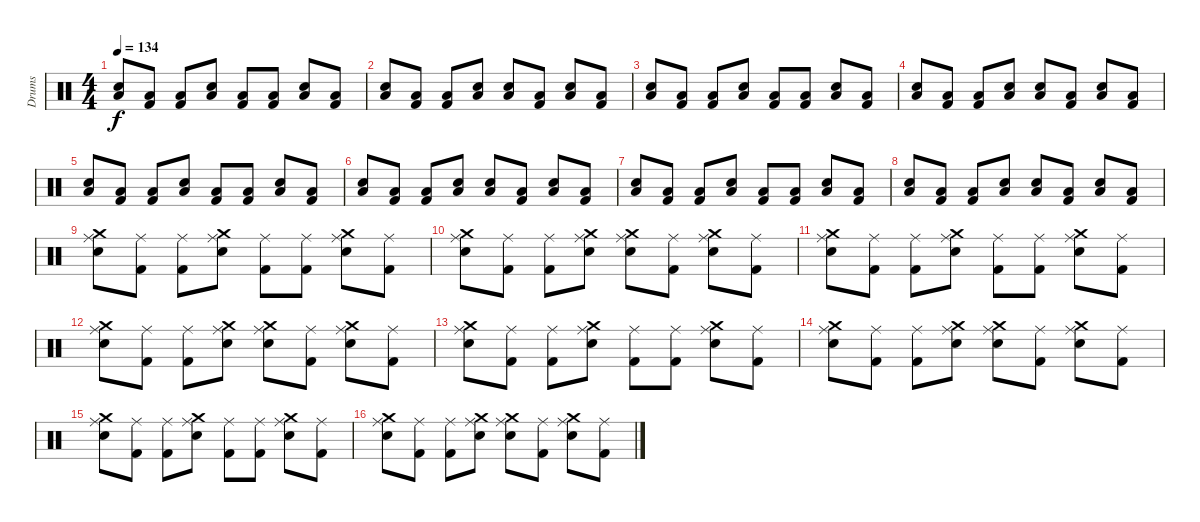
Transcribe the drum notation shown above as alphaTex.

\track ("Drums" "Drums") {instrument percussion}
\staff {score}
\articulation defaults
\ts (4 4)
\tempo 134
\clef neutral
\ks c
("Low Tom (hit)" "Snare (hit) 2").8{dy f} ("Low Tom (hit)" "Kick (hit) 2").8 ("Low Tom (hit)" "Kick (hit) 2").8 ("Low Tom (hit)" "Snare (hit) 2").8 ("Low Tom (hit)" "Kick (hit) 2").8 ("Low Tom (hit)" "Kick (hit) 2").8 ("Low Tom (hit)" "Snare (hit) 2").8 ("Low Tom (hit)" "Kick (hit) 2").8 |
("Low Tom (hit)" "Snare (hit) 2").8 ("Low Tom (hit)" "Kick (hit) 2").8 ("Low Tom (hit)" "Kick (hit) 2").8 ("Low Tom (hit)" "Snare (hit) 2").8 ("Low Tom (hit)" "Snare (hit) 2").8 ("Low Tom (hit)" "Kick (hit) 2").8 ("Low Tom (hit)" "Snare (hit) 2").8 ("Low Tom (hit)" "Kick (hit) 2").8 |
("Low Tom (hit)" "Snare (hit) 2").8 ("Low Tom (hit)" "Kick (hit) 2").8 ("Low Tom (hit)" "Kick (hit) 2").8 ("Low Tom (hit)" "Snare (hit) 2").8 ("Low Tom (hit)" "Kick (hit) 2").8 ("Low Tom (hit)" "Kick (hit) 2").8 ("Low Tom (hit)" "Snare (hit) 2").8 ("Low Tom (hit)" "Kick (hit) 2").8 |
("Low Tom (hit)" "Snare (hit) 2").8 ("Low Tom (hit)" "Kick (hit) 2").8 ("Low Tom (hit)" "Kick (hit) 2").8 ("Low Tom (hit)" "Snare (hit) 2").8 ("Low Tom (hit)" "Snare (hit) 2").8 ("Low Tom (hit)" "Kick (hit) 2").8 ("Low Tom (hit)" "Snare (hit) 2").8 ("Low Tom (hit)" "Kick (hit) 2").8 |
("Low Tom (hit)" "Snare (hit) 2").8 ("Low Tom (hit)" "Kick (hit) 2").8 ("Low Tom (hit)" "Kick (hit) 2").8 ("Low Tom (hit)" "Snare (hit) 2").8 ("Low Tom (hit)" "Kick (hit) 2").8 ("Low Tom (hit)" "Kick (hit) 2").8 ("Low Tom (hit)" "Snare (hit) 2").8 ("Low Tom (hit)" "Kick (hit) 2").8 |
("Low Tom (hit)" "Snare (hit) 2").8 ("Low Tom (hit)" "Kick (hit) 2").8 ("Low Tom (hit)" "Kick (hit) 2").8 ("Low Tom (hit)" "Snare (hit) 2").8 ("Low Tom (hit)" "Snare (hit) 2").8 ("Low Tom (hit)" "Kick (hit) 2").8 ("Low Tom (hit)" "Snare (hit) 2").8 ("Low Tom (hit)" "Kick (hit) 2").8 |
("Low Tom (hit)" "Snare (hit) 2").8 ("Low Tom (hit)" "Kick (hit) 2").8 ("Low Tom (hit)" "Kick (hit) 2").8 ("Low Tom (hit)" "Snare (hit) 2").8 ("Low Tom (hit)" "Kick (hit) 2").8 ("Low Tom (hit)" "Kick (hit) 2").8 ("Low Tom (hit)" "Snare (hit) 2").8 ("Low Tom (hit)" "Kick (hit) 2").8 |
("Low Tom (hit)" "Snare (hit) 2").8 ("Low Tom (hit)" "Kick (hit) 2").8 ("Low Tom (hit)" "Kick (hit) 2").8 ("Low Tom (hit)" "Snare (hit) 2").8 ("Low Tom (hit)" "Snare (hit) 2").8 ("Low Tom (hit)" "Kick (hit) 2").8 ("Low Tom (hit)" "Snare (hit) 2").8 ("Low Tom (hit)" "Kick (hit) 2").8 |
("Ride (middle)" "Crash medium (hit)" "Snare (hit) 2").8{volume 13} ("Ride (middle)" "Kick (hit) 2").8 ("Ride (middle)" "Kick (hit) 2").8 ("Ride (middle)" "Crash medium (hit)" "Snare (hit) 2").8 ("Ride (middle)" "Kick (hit) 2").8 ("Ride (middle)" "Kick (hit) 2").8 ("Ride (middle)" "Crash medium (hit)" "Snare (hit) 2").8 ("Ride (middle)" "Kick (hit) 2").8 |
("Ride (middle)" "Crash medium (hit)" "Snare (hit) 2").8 ("Ride (middle)" "Kick (hit) 2").8 ("Ride (middle)" "Kick (hit) 2").8 ("Ride (middle)" "Crash medium (hit)" "Snare (hit) 2").8 ("Ride (middle)" "Crash medium (hit)" "Snare (hit) 2").8 ("Ride (middle)" "Kick (hit) 2").8 ("Ride (middle)" "Crash medium (hit)" "Snare (hit) 2").8 ("Ride (middle)" "Kick (hit) 2").8 |
("Ride (middle)" "Crash medium (hit)" "Snare (hit) 2").8 ("Ride (middle)" "Kick (hit) 2").8 ("Ride (middle)" "Kick (hit) 2").8 ("Ride (middle)" "Crash medium (hit)" "Snare (hit) 2").8 ("Ride (middle)" "Kick (hit) 2").8 ("Ride (middle)" "Kick (hit) 2").8 ("Ride (middle)" "Crash medium (hit)" "Snare (hit) 2").8 ("Ride (middle)" "Kick (hit) 2").8 |
("Ride (middle)" "Crash medium (hit)" "Snare (hit) 2").8 ("Ride (middle)" "Kick (hit) 2").8 ("Ride (middle)" "Kick (hit) 2").8 ("Ride (middle)" "Crash medium (hit)" "Snare (hit) 2").8 ("Ride (middle)" "Crash medium (hit)" "Snare (hit) 2").8 ("Ride (middle)" "Kick (hit) 2").8 ("Ride (middle)" "Crash medium (hit)" "Snare (hit) 2").8 ("Ride (middle)" "Kick (hit) 2").8 |
("Ride (middle)" "Crash medium (hit)" "Snare (hit) 2").8 ("Ride (middle)" "Kick (hit) 2").8 ("Ride (middle)" "Kick (hit) 2").8 ("Ride (middle)" "Crash medium (hit)" "Snare (hit) 2").8 ("Ride (middle)" "Kick (hit) 2").8 ("Ride (middle)" "Kick (hit) 2").8 ("Ride (middle)" "Crash medium (hit)" "Snare (hit) 2").8 ("Ride (middle)" "Kick (hit) 2").8 |
("Ride (middle)" "Crash medium (hit)" "Snare (hit) 2").8 ("Ride (middle)" "Kick (hit) 2").8 ("Ride (middle)" "Kick (hit) 2").8 ("Ride (middle)" "Crash medium (hit)" "Snare (hit) 2").8 ("Ride (middle)" "Crash medium (hit)" "Snare (hit) 2").8 ("Ride (middle)" "Kick (hit) 2").8 ("Ride (middle)" "Crash medium (hit)" "Snare (hit) 2").8 ("Ride (middle)" "Kick (hit) 2").8 |
("Ride (middle)" "Crash medium (hit)" "Snare (hit) 2").8 ("Ride (middle)" "Kick (hit) 2").8 ("Ride (middle)" "Kick (hit) 2").8 ("Ride (middle)" "Crash medium (hit)" "Snare (hit) 2").8 ("Ride (middle)" "Kick (hit) 2").8 ("Ride (middle)" "Kick (hit) 2").8 ("Ride (middle)" "Crash medium (hit)" "Snare (hit) 2").8 ("Ride (middle)" "Kick (hit) 2").8 |
("Ride (middle)" "Crash medium (hit)" "Snare (hit) 2").8 ("Ride (middle)" "Kick (hit) 2").8 ("Ride (middle)" "Kick (hit) 2").8 ("Ride (middle)" "Crash medium (hit)" "Snare (hit) 2").8 ("Ride (middle)" "Crash medium (hit)" "Snare (hit) 2").8 ("Ride (middle)" "Kick (hit) 2").8 ("Ride (middle)" "Crash medium (hit)" "Snare (hit) 2").8 ("Ride (middle)" "Kick (hit) 2").8
